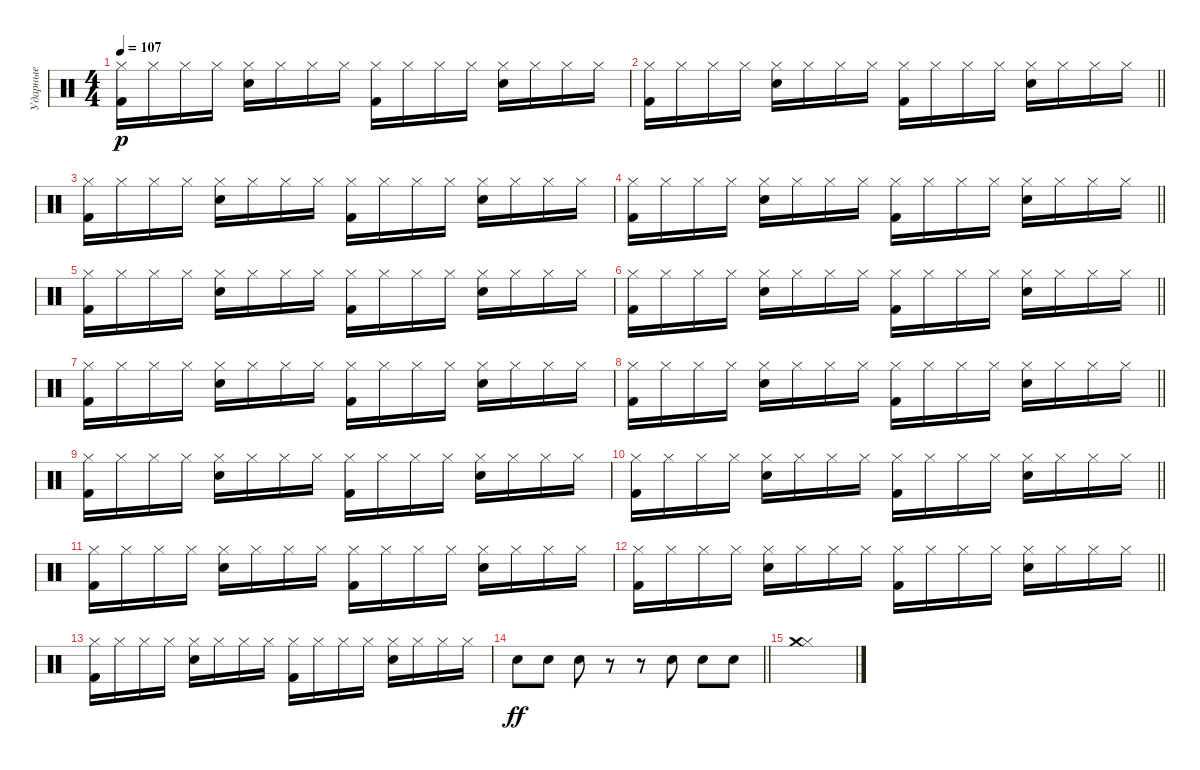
\track ("Ударные" "Ударные") {solo instrument percussion}
\staff {score}
\articulation defaults
\ts (4 4)
\tempo 107
\clef neutral
\ks c
("Kick (hit) 2" "Hi-Hat (closed)").16{dy p} "Hi-Hat (closed)".16 "Hi-Hat (closed)".16 "Hi-Hat (closed)".16 ("Snare (hit) 2" "Hi-Hat (closed)").16 "Hi-Hat (closed)".16 "Hi-Hat (closed)".16 "Hi-Hat (closed)".16 ("Kick (hit) 2" "Hi-Hat (closed)").16 "Hi-Hat (closed)".16 "Hi-Hat (closed)".16 "Hi-Hat (closed)".16 ("Snare (hit) 2" "Hi-Hat (closed)").16 "Hi-Hat (closed)".16 "Hi-Hat (closed)".16 "Hi-Hat (closed)".16 |
\barLineRight lightlight
("Kick (hit) 2" "Hi-Hat (closed)").16 "Hi-Hat (closed)".16 "Hi-Hat (closed)".16 "Hi-Hat (closed)".16 ("Snare (hit) 2" "Hi-Hat (closed)").16 "Hi-Hat (closed)".16 "Hi-Hat (closed)".16 "Hi-Hat (closed)".16 ("Kick (hit) 2" "Hi-Hat (closed)").16 "Hi-Hat (closed)".16 "Hi-Hat (closed)".16 "Hi-Hat (closed)".16 ("Snare (hit) 2" "Hi-Hat (closed)").16 "Hi-Hat (closed)".16 "Hi-Hat (closed)".16 "Hi-Hat (closed)".16 |
("Kick (hit) 2" "Hi-Hat (closed)").16 "Hi-Hat (closed)".16 "Hi-Hat (closed)".16 "Hi-Hat (closed)".16 ("Snare (hit) 2" "Hi-Hat (closed)").16 "Hi-Hat (closed)".16 "Hi-Hat (closed)".16 "Hi-Hat (closed)".16 ("Kick (hit) 2" "Hi-Hat (closed)").16 "Hi-Hat (closed)".16 "Hi-Hat (closed)".16 "Hi-Hat (closed)".16 ("Snare (hit) 2" "Hi-Hat (closed)").16 "Hi-Hat (closed)".16 "Hi-Hat (closed)".16 "Hi-Hat (closed)".16 |
\barLineRight lightlight
("Kick (hit) 2" "Hi-Hat (closed)").16 "Hi-Hat (closed)".16 "Hi-Hat (closed)".16 "Hi-Hat (closed)".16 ("Snare (hit) 2" "Hi-Hat (closed)").16 "Hi-Hat (closed)".16 "Hi-Hat (closed)".16 "Hi-Hat (closed)".16 ("Kick (hit) 2" "Hi-Hat (closed)").16 "Hi-Hat (closed)".16 "Hi-Hat (closed)".16 "Hi-Hat (closed)".16 ("Snare (hit) 2" "Hi-Hat (closed)").16 "Hi-Hat (closed)".16 "Hi-Hat (closed)".16 "Hi-Hat (closed)".16 |
("Kick (hit) 2" "Hi-Hat (closed)").16 "Hi-Hat (closed)".16 "Hi-Hat (closed)".16 "Hi-Hat (closed)".16 ("Snare (hit) 2" "Hi-Hat (closed)").16 "Hi-Hat (closed)".16 "Hi-Hat (closed)".16 "Hi-Hat (closed)".16 ("Kick (hit) 2" "Hi-Hat (closed)").16 "Hi-Hat (closed)".16 "Hi-Hat (closed)".16 "Hi-Hat (closed)".16 ("Snare (hit) 2" "Hi-Hat (closed)").16 "Hi-Hat (closed)".16 "Hi-Hat (closed)".16 "Hi-Hat (closed)".16 |
\barLineRight lightlight
("Kick (hit) 2" "Hi-Hat (closed)").16 "Hi-Hat (closed)".16 "Hi-Hat (closed)".16 "Hi-Hat (closed)".16 ("Snare (hit) 2" "Hi-Hat (closed)").16 "Hi-Hat (closed)".16 "Hi-Hat (closed)".16 "Hi-Hat (closed)".16 ("Kick (hit) 2" "Hi-Hat (closed)").16 "Hi-Hat (closed)".16 "Hi-Hat (closed)".16 "Hi-Hat (closed)".16 ("Snare (hit) 2" "Hi-Hat (closed)").16 "Hi-Hat (closed)".16 "Hi-Hat (closed)".16 "Hi-Hat (closed)".16 |
("Kick (hit) 2" "Hi-Hat (closed)").16 "Hi-Hat (closed)".16 "Hi-Hat (closed)".16 "Hi-Hat (closed)".16 ("Snare (hit) 2" "Hi-Hat (closed)").16 "Hi-Hat (closed)".16 "Hi-Hat (closed)".16 "Hi-Hat (closed)".16 ("Kick (hit) 2" "Hi-Hat (closed)").16 "Hi-Hat (closed)".16 "Hi-Hat (closed)".16 "Hi-Hat (closed)".16 ("Snare (hit) 2" "Hi-Hat (closed)").16 "Hi-Hat (closed)".16 "Hi-Hat (closed)".16 "Hi-Hat (closed)".16 |
\barLineRight lightlight
("Kick (hit) 2" "Hi-Hat (closed)").16 "Hi-Hat (closed)".16 "Hi-Hat (closed)".16 "Hi-Hat (closed)".16 ("Snare (hit) 2" "Hi-Hat (closed)").16 "Hi-Hat (closed)".16 "Hi-Hat (closed)".16 "Hi-Hat (closed)".16 ("Kick (hit) 2" "Hi-Hat (closed)").16 "Hi-Hat (closed)".16 "Hi-Hat (closed)".16 "Hi-Hat (closed)".16 ("Snare (hit) 2" "Hi-Hat (closed)").16 "Hi-Hat (closed)".16 "Hi-Hat (closed)".16 "Hi-Hat (closed)".16 |
("Kick (hit) 2" "Hi-Hat (closed)").16 "Hi-Hat (closed)".16 "Hi-Hat (closed)".16 "Hi-Hat (closed)".16 ("Snare (hit) 2" "Hi-Hat (closed)").16 "Hi-Hat (closed)".16 "Hi-Hat (closed)".16 "Hi-Hat (closed)".16 ("Kick (hit) 2" "Hi-Hat (closed)").16 "Hi-Hat (closed)".16 "Hi-Hat (closed)".16 "Hi-Hat (closed)".16 ("Snare (hit) 2" "Hi-Hat (closed)").16 "Hi-Hat (closed)".16 "Hi-Hat (closed)".16 "Hi-Hat (closed)".16 |
\barLineRight lightlight
("Kick (hit) 2" "Hi-Hat (closed)").16 "Hi-Hat (closed)".16 "Hi-Hat (closed)".16 "Hi-Hat (closed)".16 ("Snare (hit) 2" "Hi-Hat (closed)").16 "Hi-Hat (closed)".16 "Hi-Hat (closed)".16 "Hi-Hat (closed)".16 ("Kick (hit) 2" "Hi-Hat (closed)").16 "Hi-Hat (closed)".16 "Hi-Hat (closed)".16 "Hi-Hat (closed)".16 ("Snare (hit) 2" "Hi-Hat (closed)").16 "Hi-Hat (closed)".16 "Hi-Hat (closed)".16 "Hi-Hat (closed)".16 |
("Kick (hit) 2" "Hi-Hat (closed)").16 "Hi-Hat (closed)".16 "Hi-Hat (closed)".16 "Hi-Hat (closed)".16 ("Snare (hit) 2" "Hi-Hat (closed)").16 "Hi-Hat (closed)".16 "Hi-Hat (closed)".16 "Hi-Hat (closed)".16 ("Kick (hit) 2" "Hi-Hat (closed)").16 "Hi-Hat (closed)".16 "Hi-Hat (closed)".16 "Hi-Hat (closed)".16 ("Snare (hit) 2" "Hi-Hat (closed)").16 "Hi-Hat (closed)".16 "Hi-Hat (closed)".16 "Hi-Hat (closed)".16 |
\barLineRight lightlight
("Kick (hit) 2" "Hi-Hat (closed)").16 "Hi-Hat (closed)".16 "Hi-Hat (closed)".16 "Hi-Hat (closed)".16 ("Snare (hit) 2" "Hi-Hat (closed)").16 "Hi-Hat (closed)".16 "Hi-Hat (closed)".16 "Hi-Hat (closed)".16 ("Kick (hit) 2" "Hi-Hat (closed)").16 "Hi-Hat (closed)".16 "Hi-Hat (closed)".16 "Hi-Hat (closed)".16 ("Snare (hit) 2" "Hi-Hat (closed)").16 "Hi-Hat (closed)".16 "Hi-Hat (closed)".16 "Hi-Hat (closed)".16 |
("Kick (hit) 2" "Hi-Hat (closed)").16 "Hi-Hat (closed)".16 "Hi-Hat (closed)".16 "Hi-Hat (closed)".16 ("Snare (hit) 2" "Hi-Hat (closed)").16 "Hi-Hat (closed)".16 "Hi-Hat (closed)".16 "Hi-Hat (closed)".16 ("Kick (hit) 2" "Hi-Hat (closed)").16 "Hi-Hat (closed)".16 "Hi-Hat (closed)".16 "Hi-Hat (closed)".16 ("Snare (hit) 2" "Hi-Hat (closed)").16 "Hi-Hat (closed)".16 "Hi-Hat (closed)".16 "Hi-Hat (closed)".16 |
\barLineRight lightlight "Snare (hit) 2".8{dy ff} "Snare (hit) 2".8 "Snare (hit) 2".8
r.8 r.8 "Snare (hit) 2".8 "Snare (hit) 2".8 "Snare (hit) 2".8 |
("Hi-Hat (closed)" "Crash medium (hit)").1
